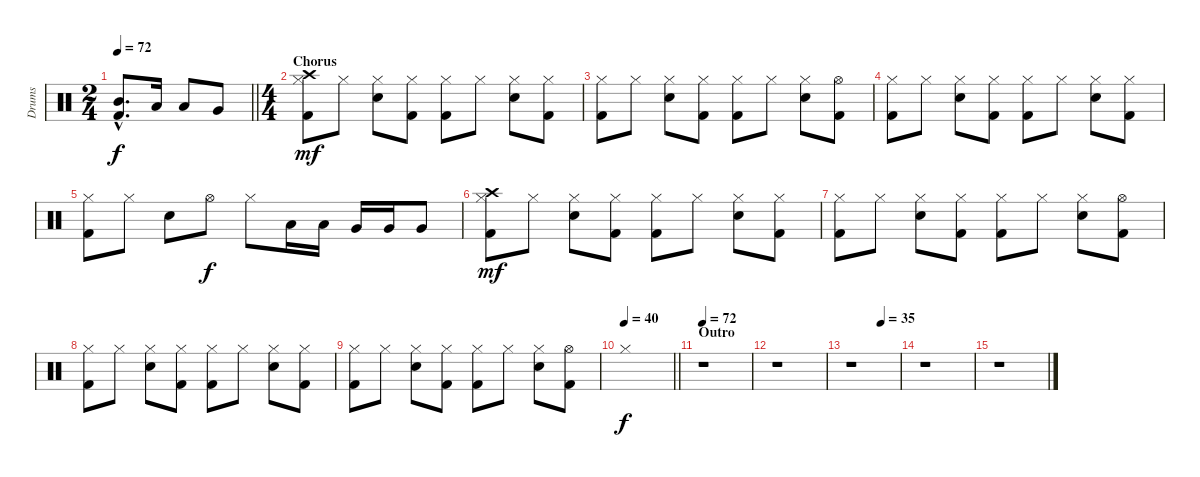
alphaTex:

\track ("Drums" "Drums") {instrument percussion}
\staff {score}
\articulation defaults
\ts (2 4)
\tempo 72
\clef neutral
\barLineRight lightlight
\ks c
("Mid Tom (hit)"{hac} "Kick (hit) 2"{hac}).8{d dy f} "Low Tom (hit)".16 "Low Tom (hit)".8 "Very Low Tom (hit)".8 |
\ts (4 4)
\section ("" "Chorus")
("Crash high (hit)" "Hi-Hat (closed)" "Kick (hit) 2").8{dy mf} "Hi-Hat (closed)".8 ("Hi-Hat (closed)" "Snare (hit) 2").8 ("Hi-Hat (closed)" "Kick (hit) 2").8 ("Hi-Hat (closed)" "Kick (hit) 2").8 "Hi-Hat (closed)".8 ("Hi-Hat (closed)" "Snare (hit) 2").8 ("Hi-Hat (closed)" "Kick (hit) 2").8 |
("Hi-Hat (closed)" "Kick (hit) 2").8 "Hi-Hat (closed)".8 ("Hi-Hat (closed)" "Snare (hit) 2").8 ("Hi-Hat (closed)" "Kick (hit) 2").8 ("Hi-Hat (closed)" "Kick (hit) 2").8 "Hi-Hat (closed)".8 ("Hi-Hat (closed)" "Snare (hit) 2").8 ("Hi-Hat (open)" "Kick (hit) 2").8 |
("Hi-Hat (closed)" "Kick (hit) 2").8 "Hi-Hat (closed)".8 ("Hi-Hat (closed)" "Snare (hit) 2").8 ("Hi-Hat (closed)" "Kick (hit) 2").8 ("Hi-Hat (closed)" "Kick (hit) 2").8 "Hi-Hat (closed)".8 ("Hi-Hat (closed)" "Snare (hit) 2").8 ("Hi-Hat (closed)" "Kick (hit) 2").8 |
("Hi-Hat (closed)" "Kick (hit) 2").8 "Hi-Hat (closed)".8 "Snare (hit) 2".8 "Hi-Hat (open)".8{dy f} "Hi-Hat (closed)".8 "Low Tom (hit)".16 "Low Tom (hit)".16 "Very Low Tom (hit)".16 "Very Low Tom (hit)".16 "Very Low Tom (hit)".8 |
("Crash high (hit)" "Hi-Hat (closed)" "Kick (hit) 2").8{dy mf} "Hi-Hat (closed)".8 ("Hi-Hat (closed)" "Snare (hit) 2").8 ("Hi-Hat (closed)" "Kick (hit) 2").8 ("Hi-Hat (closed)" "Kick (hit) 2").8 "Hi-Hat (closed)".8 ("Hi-Hat (closed)" "Snare (hit) 2").8 ("Hi-Hat (closed)" "Kick (hit) 2").8 |
("Hi-Hat (closed)" "Kick (hit) 2").8 "Hi-Hat (closed)".8 ("Hi-Hat (closed)" "Snare (hit) 2").8 ("Hi-Hat (closed)" "Kick (hit) 2").8 ("Hi-Hat (closed)" "Kick (hit) 2").8 "Hi-Hat (closed)".8 ("Hi-Hat (closed)" "Snare (hit) 2").8 ("Hi-Hat (open)" "Kick (hit) 2").8 |
("Hi-Hat (closed)" "Kick (hit) 2").8 "Hi-Hat (closed)".8 ("Hi-Hat (closed)" "Snare (hit) 2").8 ("Hi-Hat (closed)" "Kick (hit) 2").8 ("Hi-Hat (closed)" "Kick (hit) 2").8 "Hi-Hat (closed)".8 ("Hi-Hat (closed)" "Snare (hit) 2").8 ("Hi-Hat (closed)" "Kick (hit) 2").8 |
("Hi-Hat (closed)" "Kick (hit) 2").8 "Hi-Hat (closed)".8 ("Hi-Hat (closed)" "Snare (hit) 2").8 ("Hi-Hat (closed)" "Kick (hit) 2").8 ("Hi-Hat (closed)" "Kick (hit) 2").8 "Hi-Hat (closed)".8 ("Hi-Hat (closed)" "Snare (hit) 2").8 ("Hi-Hat (open)" "Kick (hit) 2").8 |
\tempo 40
\barLineRight lightlight "Hi-Hat (closed)".1{dy f}
|
\section ("" "Outro")
\tempo 72
r.1 |
r.1 |
\tempo (35 0.625)
r.1 |
r.1 |
r.1
